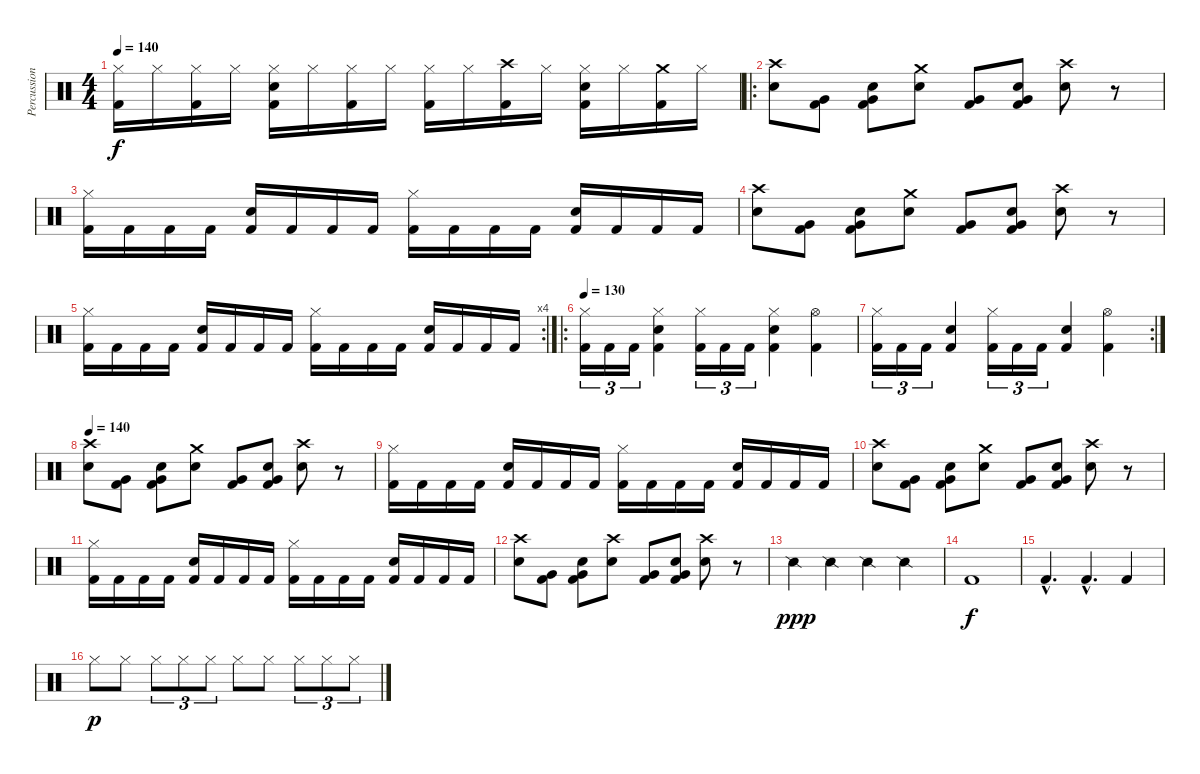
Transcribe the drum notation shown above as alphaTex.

\track ("Percussion" "Percussion") {instrument percussion}
\staff {score}
\articulation defaults
\ts (4 4)
\tempo 140
\clef neutral
\ks c
("Hi-Hat (closed)" "Kick (hit) 2").16{dy f} "Hi-Hat (closed)".16 ("Hi-Hat (closed)" "Kick (hit) 2").16 "Hi-Hat (closed)".16 ("Hi-Hat (closed)" "Snare (hit) 2" "Kick (hit) 2").16 "Hi-Hat (closed)".16 ("Hi-Hat (closed)" "Kick (hit) 2").16 "Hi-Hat (closed)".16 ("Hi-Hat (closed)" "Kick (hit) 2").16 "Hi-Hat (closed)".16 ("Crash high (hit)" "Kick (hit) 2").16 "Hi-Hat (closed)".16 ("Hi-Hat (closed)" "Snare (hit) 2" "Kick (hit) 2").16 "Hi-Hat (closed)".16 ("Crash medium (hit)" "Kick (hit) 2").16 "Hi-Hat (closed)".16 |
\ro
("Crash high (hit)" "Snare (hit) 2").8 ("Very Low Tom (hit)" "Kick (hit) 2").8 ("Very Low Tom (hit)" "Snare (hit) 2" "Kick (hit) 2").8 ("Crash medium (hit)" "Snare (hit) 2").8 ("Very Low Tom (hit)" "Kick (hit) 2").8 ("Very Low Tom (hit)" "Snare (hit) 2" "Kick (hit) 2").8 ("Crash high (hit)" "Snare (hit) 2").8 r.8 |
("Hi-Hat (closed)" "Kick (hit) 2").16 "Kick (hit) 2".16 "Kick (hit) 2".16 "Kick (hit) 2".16 ("Snare (hit) 2" "Kick (hit) 2").16 "Kick (hit) 2".16 "Kick (hit) 2".16 "Kick (hit) 2".16 ("Hi-Hat (closed)" "Kick (hit) 2").16 "Kick (hit) 2".16 "Kick (hit) 2".16 "Kick (hit) 2".16 ("Snare (hit) 2" "Kick (hit) 2").16 "Kick (hit) 2".16 "Kick (hit) 2".16 "Kick (hit) 2".16 |
("Crash high (hit)" "Snare (hit) 2").8 ("Very Low Tom (hit)" "Kick (hit) 2").8 ("Very Low Tom (hit)" "Snare (hit) 2" "Kick (hit) 2").8 ("Crash medium (hit)" "Snare (hit) 2").8 ("Very Low Tom (hit)" "Kick (hit) 2").8 ("Very Low Tom (hit)" "Snare (hit) 2" "Kick (hit) 2").8 ("Crash high (hit)" "Snare (hit) 2").8 r.8 |
\rc 4
("Hi-Hat (closed)" "Kick (hit) 2").16 "Kick (hit) 2".16 "Kick (hit) 2".16 "Kick (hit) 2".16 ("Snare (hit) 2" "Kick (hit) 2").16 "Kick (hit) 2".16 "Kick (hit) 2".16 "Kick (hit) 2".16 ("Hi-Hat (closed)" "Kick (hit) 2").16 "Kick (hit) 2".16 "Kick (hit) 2".16 "Kick (hit) 2".16 ("Snare (hit) 2" "Kick (hit) 2").16 "Kick (hit) 2".16 "Kick (hit) 2".16 "Kick (hit) 2".16 |
\ro
\tempo 130
("Hi-Hat (closed)" "Kick (hit) 2").16{tu (3 2)} "Kick (hit) 2".16{tu (3 2)} "Kick (hit) 2".16{tu (3 2)} ("Hi-Hat (closed)" "Snare (hit) 2" "Kick (hit) 2").4 ("Hi-Hat (closed)" "Kick (hit) 2").16{tu (3 2)} "Kick (hit) 2".16{tu (3 2)} "Kick (hit) 2".16{tu (3 2)} ("Hi-Hat (closed)" "Snare (hit) 2" "Kick (hit) 2").4 ("Hi-Hat (open)" "Kick (hit) 2").4 |
\rc 2
("Hi-Hat (closed)" "Kick (hit) 2").16{tu (3 2)} "Kick (hit) 2".16{tu (3 2)} "Kick (hit) 2".16{tu (3 2)} ("Snare (hit) 2" "Kick (hit) 2").4 ("Hi-Hat (closed)" "Kick (hit) 2").16{tu (3 2)} "Kick (hit) 2".16{tu (3 2)} "Kick (hit) 2".16{tu (3 2)} ("Snare (hit) 2" "Kick (hit) 2").4 ("Hi-Hat (open)" "Kick (hit) 2").4 |
\tempo 140
("Crash high (hit)" "Snare (hit) 2").8 ("Very Low Tom (hit)" "Kick (hit) 2").8 ("Very Low Tom (hit)" "Snare (hit) 2" "Kick (hit) 2").8 ("Crash medium (hit)" "Snare (hit) 2").8 ("Very Low Tom (hit)" "Kick (hit) 2").8 ("Very Low Tom (hit)" "Snare (hit) 2" "Kick (hit) 2").8 ("Crash high (hit)" "Snare (hit) 2").8 r.8 |
("Hi-Hat (closed)" "Kick (hit) 2").16 "Kick (hit) 2".16 "Kick (hit) 2".16 "Kick (hit) 2".16 ("Snare (hit) 2" "Kick (hit) 2").16 "Kick (hit) 2".16 "Kick (hit) 2".16 "Kick (hit) 2".16 ("Hi-Hat (closed)" "Kick (hit) 2").16 "Kick (hit) 2".16 "Kick (hit) 2".16 "Kick (hit) 2".16 ("Snare (hit) 2" "Kick (hit) 2").16 "Kick (hit) 2".16 "Kick (hit) 2".16 "Kick (hit) 2".16 |
("Crash high (hit)" "Snare (hit) 2").8 ("Very Low Tom (hit)" "Kick (hit) 2").8 ("Very Low Tom (hit)" "Snare (hit) 2" "Kick (hit) 2").8 ("Crash medium (hit)" "Snare (hit) 2").8 ("Very Low Tom (hit)" "Kick (hit) 2").8 ("Very Low Tom (hit)" "Snare (hit) 2" "Kick (hit) 2").8 ("Crash high (hit)" "Snare (hit) 2").8 r.8 |
("Hi-Hat (closed)" "Kick (hit) 2").16 "Kick (hit) 2".16 "Kick (hit) 2".16 "Kick (hit) 2".16 ("Snare (hit) 2" "Kick (hit) 2").16 "Kick (hit) 2".16 "Kick (hit) 2".16 "Kick (hit) 2".16 ("Hi-Hat (closed)" "Kick (hit) 2").16 "Kick (hit) 2".16 "Kick (hit) 2".16 "Kick (hit) 2".16 ("Snare (hit) 2" "Kick (hit) 2").16 "Kick (hit) 2".16 "Kick (hit) 2".16 "Kick (hit) 2".16 |
("Crash high (hit)" "Snare (hit) 2").8 ("Very Low Tom (hit)" "Kick (hit) 2").8 ("Very Low Tom (hit)" "Snare (hit) 2" "Kick (hit) 2").8 ("Crash high (hit)" "Snare (hit) 2").8 ("Very Low Tom (hit)" "Kick (hit) 2").8 ("Very Low Tom (hit)" "Snare (hit) 2" "Kick (hit) 2").8 ("Crash high (hit)" "Snare (hit) 2").8 r.8 |
"Snare (side stick) 2".4{dy ppp} "Snare (side stick) 2".4 "Snare (side stick) 2".4 "Snare (side stick) 2".4 |
"Kick (hit) 2".1{dy f} |
"Kick (hit) 2"{hac}.4{d} "Kick (hit) 2"{hac}.4{d} "Kick (hit) 2".4 |
"Hi-Hat (closed)".8{dy p} "Hi-Hat (closed)".8 "Hi-Hat (closed)".8{tu (3 2)} "Hi-Hat (closed)".8{tu (3 2)} "Hi-Hat (closed)".8{tu (3 2)} "Hi-Hat (closed)".8 "Hi-Hat (closed)".8 "Hi-Hat (closed)".8{tu (3 2)} "Hi-Hat (closed)".8{tu (3 2)} "Hi-Hat (closed)".8{tu (3 2)}
